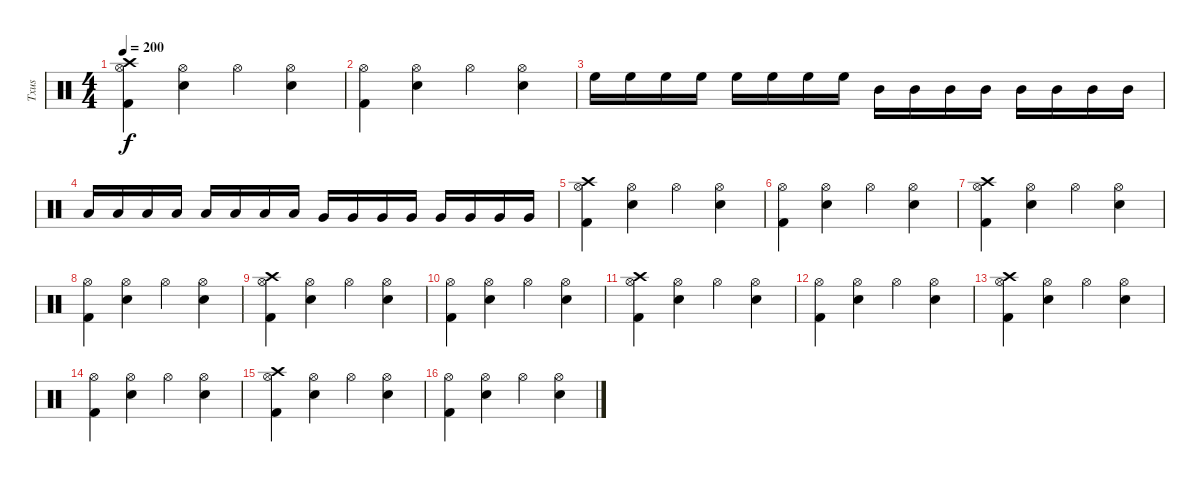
\track ("Txus" "Txus") {instrument percussion}
\staff
\articulation defaults
\ts (4 4)
\tempo 200
\clef neutral
\ks c
("Kick (hit) 2" "Crash high (hit)" "Hi-Hat (open)").4{dy f} ("Electric Snare (hit)" "Hi-Hat (open)").4 "Hi-Hat (open)".4 ("Electric Snare (hit)" "Hi-Hat (open)").4 |
("Kick (hit) 2" "Hi-Hat (open)").4 ("Electric Snare (hit)" "Hi-Hat (open)").4 "Hi-Hat (open)".4 ("Electric Snare (hit)" "Hi-Hat (open)").4 |
"High Floor Tom (hit)".16 "High Floor Tom (hit)".16 "High Floor Tom (hit)".16 "High Floor Tom (hit)".16 "High Floor Tom (hit)".16 "High Floor Tom (hit)".16 "High Floor Tom (hit)".16 "High Floor Tom (hit)".16 "Mid Tom (hit)".16 "Mid Tom (hit)".16 "Mid Tom (hit)".16 "Mid Tom (hit)".16 "Mid Tom (hit)".16 "Mid Tom (hit)".16 "Mid Tom (hit)".16 "Mid Tom (hit)".16 |
"Low Tom (hit)".16 "Low Tom (hit)".16 "Low Tom (hit)".16 "Low Tom (hit)".16 "Low Tom (hit)".16 "Low Tom (hit)".16 "Low Tom (hit)".16 "Low Tom (hit)".16 "Very Low Tom (hit)".16 "Very Low Tom (hit)".16 "Very Low Tom (hit)".16 "Very Low Tom (hit)".16 "Very Low Tom (hit)".16 "Very Low Tom (hit)".16 "Very Low Tom (hit)".16 "Very Low Tom (hit)".16 |
("Kick (hit) 2" "Crash high (hit)" "Hi-Hat (open)").4 ("Electric Snare (hit)" "Hi-Hat (open)").4 "Hi-Hat (open)".4 ("Electric Snare (hit)" "Hi-Hat (open)").4 |
("Kick (hit) 2" "Hi-Hat (open)").4 ("Electric Snare (hit)" "Hi-Hat (open)").4 "Hi-Hat (open)".4 ("Electric Snare (hit)" "Hi-Hat (open)").4 |
("Kick (hit) 2" "Crash high (hit)" "Hi-Hat (open)").4 ("Electric Snare (hit)" "Hi-Hat (open)").4 "Hi-Hat (open)".4 ("Electric Snare (hit)" "Hi-Hat (open)").4 |
("Kick (hit) 2" "Hi-Hat (open)").4 ("Electric Snare (hit)" "Hi-Hat (open)").4 "Hi-Hat (open)".4 ("Electric Snare (hit)" "Hi-Hat (open)").4 |
("Kick (hit) 2" "Crash high (hit)" "Hi-Hat (open)").4 ("Electric Snare (hit)" "Hi-Hat (open)").4 "Hi-Hat (open)".4 ("Electric Snare (hit)" "Hi-Hat (open)").4 |
("Kick (hit) 2" "Hi-Hat (open)").4 ("Electric Snare (hit)" "Hi-Hat (open)").4 "Hi-Hat (open)".4 ("Electric Snare (hit)" "Hi-Hat (open)").4 |
("Kick (hit) 2" "Crash high (hit)" "Hi-Hat (open)").4 ("Electric Snare (hit)" "Hi-Hat (open)").4 "Hi-Hat (open)".4 ("Electric Snare (hit)" "Hi-Hat (open)").4 |
("Kick (hit) 2" "Hi-Hat (open)").4 ("Electric Snare (hit)" "Hi-Hat (open)").4 "Hi-Hat (open)".4 ("Electric Snare (hit)" "Hi-Hat (open)").4 |
("Kick (hit) 2" "Crash high (hit)" "Hi-Hat (open)").4 ("Electric Snare (hit)" "Hi-Hat (open)").4 "Hi-Hat (open)".4 ("Electric Snare (hit)" "Hi-Hat (open)").4 |
("Kick (hit) 2" "Hi-Hat (open)").4 ("Electric Snare (hit)" "Hi-Hat (open)").4 "Hi-Hat (open)".4 ("Electric Snare (hit)" "Hi-Hat (open)").4 |
("Kick (hit) 2" "Crash high (hit)" "Hi-Hat (open)").4 ("Electric Snare (hit)" "Hi-Hat (open)").4 "Hi-Hat (open)".4 ("Electric Snare (hit)" "Hi-Hat (open)").4 |
("Kick (hit) 2" "Hi-Hat (open)").4 ("Electric Snare (hit)" "Hi-Hat (open)").4 "Hi-Hat (open)".4 ("Electric Snare (hit)" "Hi-Hat (open)").4
